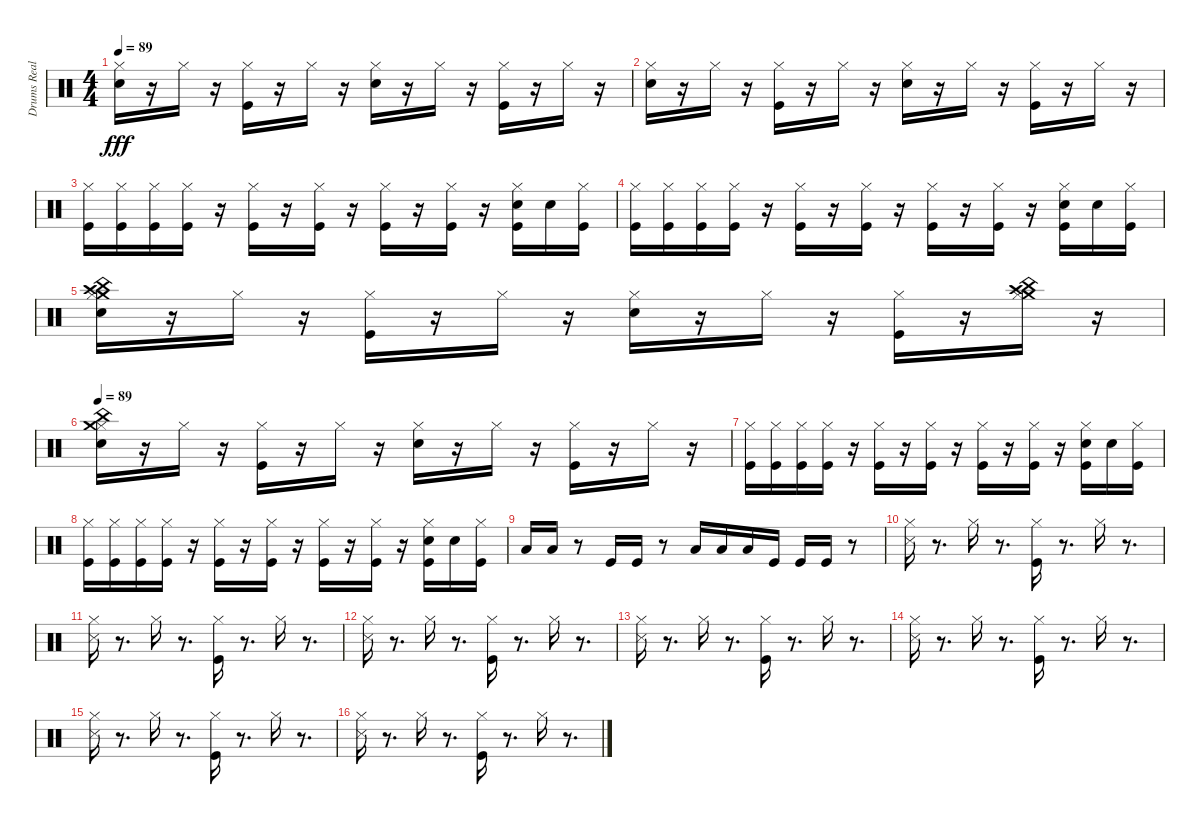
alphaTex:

\track ("Drums Real" "Drums Real") {instrument percussion}
\staff {score}
\articulation defaults
\ts (4 4)
\tempo 89
\clef neutral
\ks c
("Electric Snare (hit)" "Hi-Hat (closed)").16{dy fff} r.16 "Hi-Hat (closed)".16 r.16 ("Kick (hit)" "Hi-Hat (closed)").16 r.16 "Hi-Hat (closed)".16 r.16 ("Electric Snare (hit)" "Hi-Hat (closed)").16 r.16 "Hi-Hat (closed)".16 r.16 ("Kick (hit)" "Hi-Hat (closed)").16 r.16 "Hi-Hat (closed)".16 r.16 |
("Electric Snare (hit)" "Hi-Hat (closed)").16 r.16 "Hi-Hat (closed)".16 r.16 ("Kick (hit)" "Hi-Hat (closed)").16 r.16 "Hi-Hat (closed)".16 r.16 ("Electric Snare (hit)" "Hi-Hat (closed)").16 r.16 "Hi-Hat (closed)".16 r.16 ("Kick (hit)" "Hi-Hat (closed)").16 r.16 "Hi-Hat (closed)".16 r.16 |
("Kick (hit)" "Hi-Hat (closed)").16 ("Kick (hit)" "Hi-Hat (closed)").16 ("Kick (hit)" "Hi-Hat (closed)").16 ("Kick (hit)" "Hi-Hat (closed)").16 r.16 ("Kick (hit)" "Hi-Hat (closed)").16 r.16 ("Kick (hit)" "Hi-Hat (closed)").16 r.16 ("Kick (hit)" "Hi-Hat (closed)").16 r.16 ("Kick (hit)" "Hi-Hat (closed)").16 r.16 ("Kick (hit)" "Electric Snare (hit)" "Hi-Hat (closed)").16 "Electric Snare (hit)".16 ("Kick (hit)" "Hi-Hat (closed)").16 |
("Hi-Hat (closed)" "Kick (hit)").16 ("Hi-Hat (closed)" "Kick (hit)").16 ("Hi-Hat (closed)" "Kick (hit)").16 ("Hi-Hat (closed)" "Kick (hit)").16 r.16 ("Hi-Hat (closed)" "Kick (hit)").16 r.16 ("Hi-Hat (closed)" "Kick (hit)").16 r.16 ("Hi-Hat (closed)" "Kick (hit)").16 r.16 ("Hi-Hat (closed)" "Kick (hit)").16 r.16 ("Hi-Hat (closed)" "Kick (hit)" "Electric Snare (hit)").16 "Electric Snare (hit)".16 ("Hi-Hat (closed)" "Kick (hit)").16 |
("Electric Snare (hit)" "Crash high (hit)" "China (hit)" "Crash medium (hit)" "Hi-Hat (closed)").16 r.16 "Hi-Hat (closed)".16 r.16 ("Kick (hit)" "Hi-Hat (closed)").16 r.16 "Hi-Hat (closed)".16 r.16 ("Electric Snare (hit)" "Hi-Hat (closed)").16 r.16 "Hi-Hat (closed)".16 r.16 ("Kick (hit)" "Hi-Hat (closed)").16 r.16 ("Crash high (hit)" "China (hit)" "Crash medium (hit)" "Hi-Hat (closed)").16 r.16 |
\tempo 89
("Electric Snare (hit)" "Hi-Hat (closed)" "China (hit)" "Crash medium (hit)").16 r.16 "Hi-Hat (closed)".16 r.16 ("Kick (hit)" "Hi-Hat (closed)").16 r.16 "Hi-Hat (closed)".16 r.16 ("Electric Snare (hit)" "Hi-Hat (closed)").16 r.16 "Hi-Hat (closed)".16 r.16 ("Kick (hit)" "Hi-Hat (closed)").16 r.16 "Hi-Hat (closed)".16 r.16 |
("Hi-Hat (closed)" "Kick (hit)").16 ("Hi-Hat (closed)" "Kick (hit)").16 ("Hi-Hat (closed)" "Kick (hit)").16 ("Hi-Hat (closed)" "Kick (hit)").16 r.16 ("Hi-Hat (closed)" "Kick (hit)").16 r.16 ("Hi-Hat (closed)" "Kick (hit)").16 r.16 ("Hi-Hat (closed)" "Kick (hit)").16 r.16 ("Hi-Hat (closed)" "Kick (hit)").16 r.16 ("Electric Snare (hit)" "Hi-Hat (closed)" "Kick (hit)").16 "Electric Snare (hit)".16 ("Hi-Hat (closed)" "Kick (hit)").16 |
("Kick (hit)" "Hi-Hat (closed)").16 ("Kick (hit)" "Hi-Hat (closed)").16 ("Kick (hit)" "Hi-Hat (closed)").16 ("Kick (hit)" "Hi-Hat (closed)").16 r.16 ("Kick (hit)" "Hi-Hat (closed)").16 r.16 ("Kick (hit)" "Hi-Hat (closed)").16 r.16 ("Kick (hit)" "Hi-Hat (closed)").16 r.16 ("Kick (hit)" "Hi-Hat (closed)").16 r.16 ("Electric Snare (hit)" "Kick (hit)" "Hi-Hat (closed)").16 "Electric Snare (hit)".16 ("Kick (hit)" "Hi-Hat (closed)").16 |
"Low Tom (hit)".16 "Low Tom (hit)".16 r.8 "Kick (hit)".16 "Kick (hit)".16 r.8 "Low Tom (hit)".16 "Low Tom (hit)".16 "Low Tom (hit)".16 "Kick (hit)".16 "Kick (hit)".16 "Kick (hit)".16 r.8 |
("Snare (side stick) 3" "Hi-Hat (closed)").16 r.8{d} "Hi-Hat (closed)".16 r.8{d} ("Kick (hit)" "Hi-Hat (closed)").16 r.8{d} "Hi-Hat (closed)".16 r.8{d} |
("Snare (side stick) 3" "Hi-Hat (closed)").16 r.8{d} "Hi-Hat (closed)".16 r.8{d} ("Kick (hit)" "Hi-Hat (closed)").16 r.8{d} "Hi-Hat (closed)".16 r.8{d} |
("Snare (side stick) 3" "Hi-Hat (closed)").16 r.8{d} "Hi-Hat (closed)".16 r.8{d} ("Kick (hit)" "Hi-Hat (closed)").16 r.8{d} "Hi-Hat (closed)".16 r.8{d} |
("Snare (side stick) 3" "Hi-Hat (closed)").16 r.8{d} "Hi-Hat (closed)".16 r.8{d} ("Kick (hit)" "Hi-Hat (closed)").16 r.8{d} "Hi-Hat (closed)".16 r.8{d} |
("Snare (side stick) 3" "Hi-Hat (closed)").16 r.8{d} "Hi-Hat (closed)".16 r.8{d} ("Kick (hit)" "Hi-Hat (closed)").16 r.8{d} "Hi-Hat (closed)".16 r.8{d} |
("Snare (side stick) 3" "Hi-Hat (closed)").16 r.8{d} "Hi-Hat (closed)".16 r.8{d} ("Kick (hit)" "Hi-Hat (closed)").16 r.8{d} "Hi-Hat (closed)".16 r.8{d} |
("Snare (side stick) 3" "Hi-Hat (closed)").16 r.8{d} "Hi-Hat (closed)".16 r.8{d} ("Kick (hit)" "Hi-Hat (closed)").16 r.8{d} "Hi-Hat (closed)".16 r.8{d}
